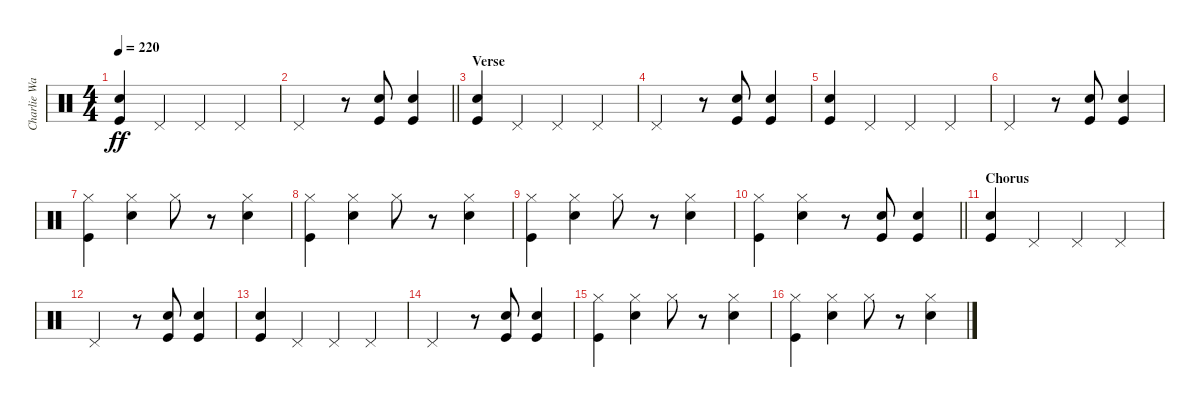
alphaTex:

\track ("Charlie Watts" "Charlie Wa") {instrument percussion}
\staff {score}
\articulation defaults
\ts (4 4)
\tempo 220
\clef neutral
\ks c
("Snare (hit) 2" "Kick (hit)").4{dy ff} "Pedal Hi-Hat (hit)".4 "Pedal Hi-Hat (hit)".4 "Pedal Hi-Hat (hit)".4 |
\barLineRight lightlight "Pedal Hi-Hat (hit)".2
r.8 ("Snare (hit) 2" "Kick (hit)").8 ("Snare (hit) 2" "Kick (hit)").4 |
\section ("" "Verse")
("Snare (hit) 2" "Kick (hit)").4 "Pedal Hi-Hat (hit)".4 "Pedal Hi-Hat (hit)".4 "Pedal Hi-Hat (hit)".4 |
"Pedal Hi-Hat (hit)".2 r.8 ("Snare (hit) 2" "Kick (hit)").8 ("Snare (hit) 2" "Kick (hit)").4 |
("Snare (hit) 2" "Kick (hit)").4 "Pedal Hi-Hat (hit)".4 "Pedal Hi-Hat (hit)".4 "Pedal Hi-Hat (hit)".4 |
"Pedal Hi-Hat (hit)".2 r.8 ("Snare (hit) 2" "Kick (hit)").8 ("Snare (hit) 2" "Kick (hit)").4 |
("Hi-Hat (closed)" "Kick (hit)").4 ("Hi-Hat (closed)" "Snare (hit) 2").4 "Hi-Hat (closed)".8 r.8 ("Hi-Hat (closed)" "Snare (hit) 2").4 |
("Hi-Hat (closed)" "Kick (hit)").4 ("Hi-Hat (closed)" "Snare (hit) 2").4 "Hi-Hat (closed)".8 r.8 ("Hi-Hat (closed)" "Snare (hit) 2").4 |
("Hi-Hat (closed)" "Kick (hit)").4 ("Hi-Hat (closed)" "Snare (hit) 2").4 "Hi-Hat (closed)".8 r.8 ("Hi-Hat (closed)" "Snare (hit) 2").4 |
\barLineRight lightlight
("Hi-Hat (closed)" "Kick (hit)").4 ("Hi-Hat (closed)" "Snare (hit) 2").4 r.8 ("Snare (hit) 2" "Kick (hit)").8 ("Snare (hit) 2" "Kick (hit)").4 |
\section ("" "Chorus")
("Snare (hit) 2" "Kick (hit)").4 "Pedal Hi-Hat (hit)".4 "Pedal Hi-Hat (hit)".4 "Pedal Hi-Hat (hit)".4 |
"Pedal Hi-Hat (hit)".2 r.8 ("Snare (hit) 2" "Kick (hit)").8 ("Snare (hit) 2" "Kick (hit)").4 |
("Snare (hit) 2" "Kick (hit)").4 "Pedal Hi-Hat (hit)".4 "Pedal Hi-Hat (hit)".4 "Pedal Hi-Hat (hit)".4 |
"Pedal Hi-Hat (hit)".2 r.8 ("Snare (hit) 2" "Kick (hit)").8 ("Snare (hit) 2" "Kick (hit)").4 |
("Hi-Hat (closed)" "Kick (hit)").4 ("Hi-Hat (closed)" "Snare (hit) 2").4 "Hi-Hat (closed)".8 r.8 ("Hi-Hat (closed)" "Snare (hit) 2").4 |
("Hi-Hat (closed)" "Kick (hit)").4 ("Hi-Hat (closed)" "Snare (hit) 2").4 "Hi-Hat (closed)".8 r.8 ("Hi-Hat (closed)" "Snare (hit) 2").4
